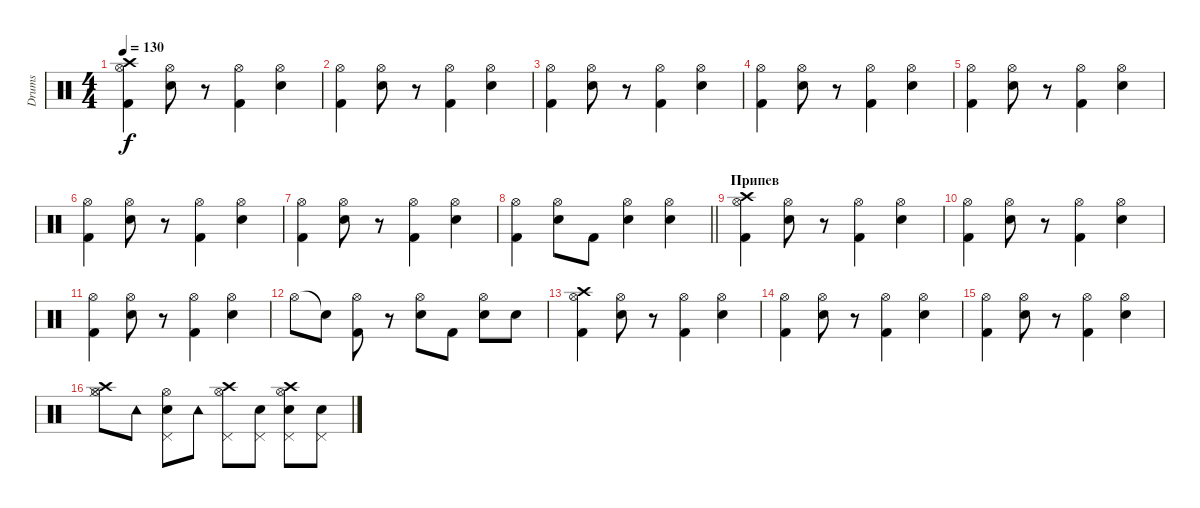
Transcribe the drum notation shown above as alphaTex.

\track ("Drums" "Drums") {instrument percussion}
\staff {score}
\articulation defaults
\ts (4 4)
\tempo 130
\clef neutral
\ks c
("Crash high (hit)" "Kick (hit) 2" "Hi-Hat (open)").4{dy f} ("Snare (hit) 2" "Hi-Hat (open)").8 r.8 ("Kick (hit) 2" "Hi-Hat (open)").4 ("Snare (hit) 2" "Hi-Hat (open)").4 |
("Kick (hit) 2" "Hi-Hat (open)").4 ("Snare (hit) 2" "Hi-Hat (open)").8 r.8 ("Kick (hit) 2" "Hi-Hat (open)").4 ("Snare (hit) 2" "Hi-Hat (open)").4 |
("Kick (hit) 2" "Hi-Hat (open)").4 ("Snare (hit) 2" "Hi-Hat (open)").8 r.8 ("Kick (hit) 2" "Hi-Hat (open)").4 ("Snare (hit) 2" "Hi-Hat (open)").4 |
("Kick (hit) 2" "Hi-Hat (open)").4 ("Snare (hit) 2" "Hi-Hat (open)").8 r.8 ("Kick (hit) 2" "Hi-Hat (open)").4 ("Snare (hit) 2" "Hi-Hat (open)").4 |
("Kick (hit) 2" "Hi-Hat (open)").4 ("Snare (hit) 2" "Hi-Hat (open)").8 r.8 ("Kick (hit) 2" "Hi-Hat (open)").4 ("Snare (hit) 2" "Hi-Hat (open)").4 |
("Kick (hit) 2" "Hi-Hat (open)").4 ("Snare (hit) 2" "Hi-Hat (open)").8 r.8 ("Kick (hit) 2" "Hi-Hat (open)").4 ("Snare (hit) 2" "Hi-Hat (open)").4 |
("Kick (hit) 2" "Hi-Hat (open)").4 ("Snare (hit) 2" "Hi-Hat (open)").8 r.8 ("Kick (hit) 2" "Hi-Hat (open)").4 ("Snare (hit) 2" "Hi-Hat (open)").4 |
\barLineRight lightlight
("Kick (hit) 2" "Hi-Hat (open)").4 ("Snare (hit) 2" "Hi-Hat (open)").8 "Kick (hit) 2".8 ("Snare (hit) 2" "Hi-Hat (open)").4 ("Snare (hit) 2" "Hi-Hat (open)").4 |
\section ("" "Припев")
("Crash high (hit)" "Kick (hit) 2" "Hi-Hat (open)").4 ("Snare (hit) 2" "Hi-Hat (open)").8 r.8 ("Kick (hit) 2" "Hi-Hat (open)").4 ("Snare (hit) 2" "Hi-Hat (open)").4 |
("Kick (hit) 2" "Hi-Hat (open)").4 ("Snare (hit) 2" "Hi-Hat (open)").8 r.8 ("Kick (hit) 2" "Hi-Hat (open)").4 ("Snare (hit) 2" "Hi-Hat (open)").4 |
("Kick (hit) 2" "Hi-Hat (open)").4 ("Snare (hit) 2" "Hi-Hat (open)").8 r.8 ("Kick (hit) 2" "Hi-Hat (open)").4 ("Snare (hit) 2" "Hi-Hat (open)").4 |
"Hi-Hat (open)".8 "Snare (hit)"{t}.8 ("Kick (hit) 2" "Hi-Hat (open)").8 r.8 ("Electric Snare (hit)" "Hi-Hat (open)").8 "Kick (hit) 2".8 ("Snare (hit) 2" "Hi-Hat (open)").8 "Electric Snare (hit)".8 |
("Crash high (hit)" "Kick (hit) 2" "Hi-Hat (open)").4 ("Snare (hit) 2" "Hi-Hat (open)").8 r.8 ("Kick (hit) 2" "Hi-Hat (open)").4 ("Snare (hit) 2" "Hi-Hat (open)").4 |
("Kick (hit) 2" "Hi-Hat (open)").4 ("Snare (hit) 2" "Hi-Hat (open)").8 r.8 ("Kick (hit) 2" "Hi-Hat (open)").4 ("Snare (hit) 2" "Hi-Hat (open)").4 |
("Kick (hit) 2" "Hi-Hat (open)").4 ("Snare (hit) 2" "Hi-Hat (open)").8 r.8 ("Kick (hit) 2" "Hi-Hat (open)").4 ("Snare (hit) 2" "Hi-Hat (open)").4 |
("Hi-Hat (open)" "Crash high (hit)" "Hi-Hat (closed)").8 "Tambourine (hit)".8 ("Hi-Hat (open)" "Pedal Hi-Hat (hit)" "Snare (hit) 2").8 "Tambourine (hit)".8 ("Hi-Hat (open)" "Crash high (hit)" "Pedal Hi-Hat (hit)").8 ("Pedal Hi-Hat (hit)" "Snare (hit) 2").8 ("Hi-Hat (open)" "Crash high (hit)" "Pedal Hi-Hat (hit)" "Snare (hit) 2").8 ("Pedal Hi-Hat (hit)" "Snare (hit) 2").8
